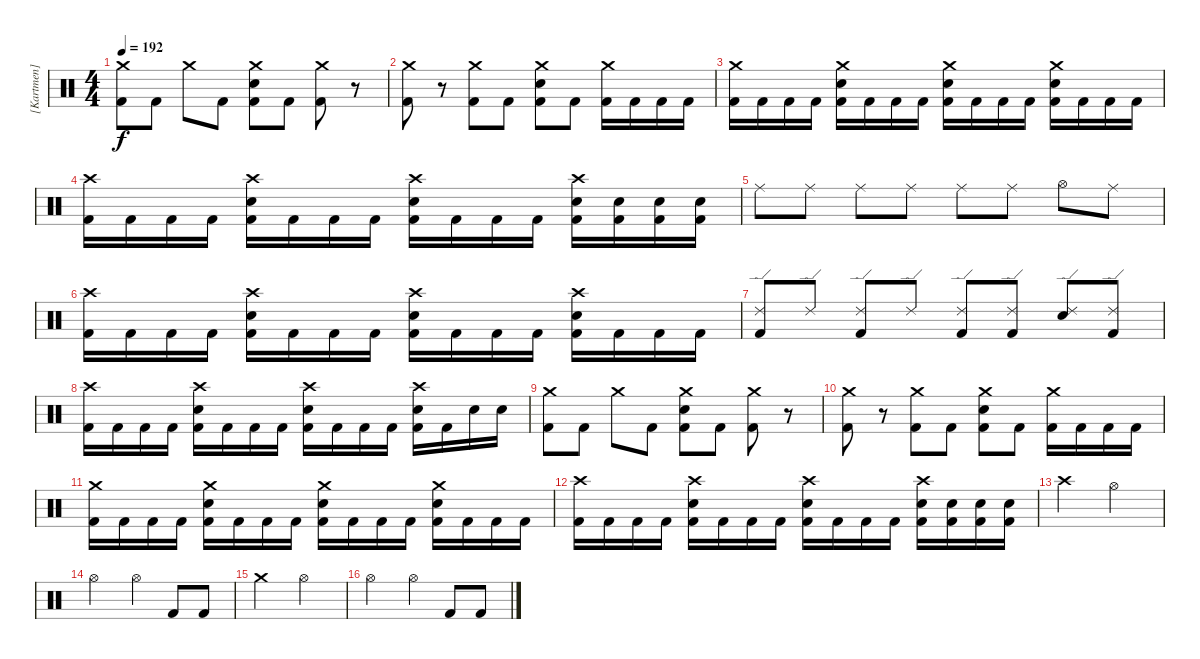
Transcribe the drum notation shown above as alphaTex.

\track ("[Kartmen] - Drums" "[Kartmen] ") {instrument percussion}
\staff {score}
\articulation defaults
\ts (4 4)
\tempo 192
\clef neutral
\ks c
("Crash medium (hit)" "Kick (hit) 2").8{dy f} "Kick (hit) 2".8 "Crash medium (hit)".8 "Kick (hit) 2".8 ("Crash medium (hit)" "Snare (hit) 2" "Kick (hit) 2").8 "Kick (hit) 2".8 ("Crash medium (hit)" "Kick (hit) 2").8 r.8 |
("Crash medium (hit)" "Kick (hit) 2").8 r.8 ("Crash medium (hit)" "Kick (hit) 2").8 "Kick (hit) 2".8 ("Crash medium (hit)" "Snare (hit) 2" "Kick (hit) 2").8 "Kick (hit) 2".8 ("Crash medium (hit)" "Kick (hit) 2").16 "Kick (hit) 2".16 "Kick (hit) 2".16 "Kick (hit) 2".16 |
("Crash medium (hit)" "Kick (hit) 2").16 "Kick (hit) 2".16 "Kick (hit) 2".16 "Kick (hit) 2".16 ("Crash medium (hit)" "Snare (hit) 2" "Kick (hit) 2").16 "Kick (hit) 2".16 "Kick (hit) 2".16 "Kick (hit) 2".16 ("Crash medium (hit)" "Snare (hit) 2" "Kick (hit) 2").16 "Kick (hit) 2".16 "Kick (hit) 2".16 "Kick (hit) 2".16 ("Crash medium (hit)" "Snare (hit) 2" "Kick (hit) 2").16 "Kick (hit) 2".16 "Kick (hit) 2".16 "Kick (hit) 2".16 |
("Crash high (hit)" "Kick (hit) 2").16 "Kick (hit) 2".16 "Kick (hit) 2".16 "Kick (hit) 2".16 ("Crash high (hit)" "Snare (hit) 2" "Kick (hit) 2").16 "Kick (hit) 2".16 "Kick (hit) 2".16 "Kick (hit) 2".16 ("Crash high (hit)" "Snare (hit) 2" "Kick (hit) 2").16 "Kick (hit) 2".16 "Kick (hit) 2".16 "Kick (hit) 2".16 ("Crash high (hit)" "Snare (hit) 2" "Kick (hit) 2").16 ("Snare (hit) 2" "Kick (hit) 2").16 ("Snare (hit) 2" "Kick (hit) 2").16 ("Snare (hit) 2" "Kick (hit) 2").16 |
"Ride (middle)".8 "Ride (middle)".8 "Ride (middle)".8 "Ride (middle)".8 "Ride (middle)".8 "Ride (middle)".8 "Hi-Hat (open)".8 "Ride (middle)".8 |
("Crash high (hit)" "Kick (hit) 2").16 "Kick (hit) 2".16 "Kick (hit) 2".16 "Kick (hit) 2".16 ("Crash high (hit)" "Snare (hit) 2" "Kick (hit) 2").16 "Kick (hit) 2".16 "Kick (hit) 2".16 "Kick (hit) 2".16 ("Crash high (hit)" "Snare (hit) 2" "Kick (hit) 2").16 "Kick (hit) 2".16 "Kick (hit) 2".16 "Kick (hit) 2".16 ("Crash high (hit)" "Snare (hit) 2" "Kick (hit) 2").16 "Kick (hit) 2".16 "Kick (hit) 2".16 "Kick (hit) 2".16 |
("Ride (edge) 2" "Kick (hit) 2").8 "Ride (edge) 2".8 ("Ride (edge) 2" "Kick (hit) 2").8 "Ride (edge) 2".8 ("Ride (edge) 2" "Kick (hit) 2").8 ("Ride (edge) 2" "Kick (hit) 2").8 ("Ride (edge) 2" "Snare (hit) 2").8 ("Ride (edge) 2" "Kick (hit) 2").8 |
("Crash high (hit)" "Kick (hit) 2").16 "Kick (hit) 2".16 "Kick (hit) 2".16 "Kick (hit) 2".16 ("Crash high (hit)" "Snare (hit) 2" "Kick (hit) 2").16 "Kick (hit) 2".16 "Kick (hit) 2".16 "Kick (hit) 2".16 ("Crash high (hit)" "Snare (hit) 2" "Kick (hit) 2").16 "Kick (hit) 2".16 "Kick (hit) 2".16 "Kick (hit) 2".16 ("Crash high (hit)" "Snare (hit) 2" "Kick (hit) 2").16 "Kick (hit) 2".16 "Snare (hit) 2".16 "Snare (hit) 2".16 |
("Crash medium (hit)" "Kick (hit) 2").8 "Kick (hit) 2".8 "Crash medium (hit)".8 "Kick (hit) 2".8 ("Crash medium (hit)" "Snare (hit) 2" "Kick (hit) 2").8 "Kick (hit) 2".8 ("Crash medium (hit)" "Kick (hit) 2").8 r.8 |
("Crash medium (hit)" "Kick (hit) 2").8 r.8 ("Crash medium (hit)" "Kick (hit) 2").8 "Kick (hit) 2".8 ("Crash medium (hit)" "Snare (hit) 2" "Kick (hit) 2").8 "Kick (hit) 2".8 ("Crash medium (hit)" "Kick (hit) 2").16 "Kick (hit) 2".16 "Kick (hit) 2".16 "Kick (hit) 2".16 |
("Crash medium (hit)" "Kick (hit) 2").16 "Kick (hit) 2".16 "Kick (hit) 2".16 "Kick (hit) 2".16 ("Crash medium (hit)" "Snare (hit) 2" "Kick (hit) 2").16 "Kick (hit) 2".16 "Kick (hit) 2".16 "Kick (hit) 2".16 ("Crash medium (hit)" "Snare (hit) 2" "Kick (hit) 2").16 "Kick (hit) 2".16 "Kick (hit) 2".16 "Kick (hit) 2".16 ("Crash medium (hit)" "Snare (hit) 2" "Kick (hit) 2").16 "Kick (hit) 2".16 "Kick (hit) 2".16 "Kick (hit) 2".16 |
("Crash high (hit)" "Kick (hit) 2").16 "Kick (hit) 2".16 "Kick (hit) 2".16 "Kick (hit) 2".16 ("Crash high (hit)" "Snare (hit) 2" "Kick (hit) 2").16 "Kick (hit) 2".16 "Kick (hit) 2".16 "Kick (hit) 2".16 ("Crash high (hit)" "Snare (hit) 2" "Kick (hit) 2").16 "Kick (hit) 2".16 "Kick (hit) 2".16 "Kick (hit) 2".16 ("Crash high (hit)" "Snare (hit) 2" "Kick (hit) 2").16 ("Snare (hit) 2" "Kick (hit) 2").16 ("Snare (hit) 2" "Kick (hit) 2").16 ("Snare (hit) 2" "Kick (hit) 2").16 |
"Crash high (hit)".2 "Hi-Hat (open)".2 |
"Hi-Hat (open)".2 "Hi-Hat (open)".4 "Kick (hit) 2".8 "Kick (hit) 2".8 |
"Crash medium (hit)".2 "Hi-Hat (open)".2 |
"Hi-Hat (open)".2 "Hi-Hat (open)".4 "Kick (hit) 2".8 "Kick (hit) 2".8
